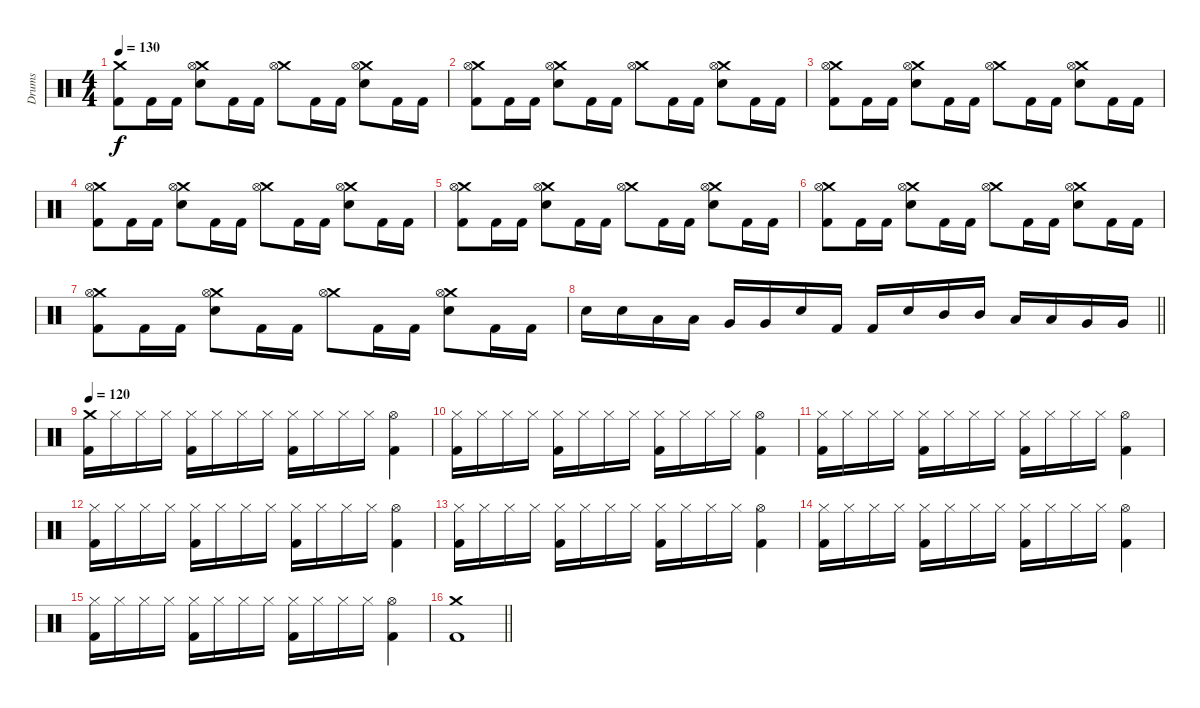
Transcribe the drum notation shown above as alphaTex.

\track ("Drums" "Drums") {instrument percussion}
\staff {score}
\articulation defaults
\ts (4 4)
\tempo 130
\clef neutral
\ks c
("Crash medium (hit)" "Kick (hit) 2").8{dy f} "Kick (hit) 2".16 "Kick (hit) 2".16 ("Crash medium (hit)" "Hi-Hat (open)" "Electric Snare (hit)").8 "Kick (hit) 2".16 "Kick (hit) 2".16 ("Crash medium (hit)" "Hi-Hat (open)").8 "Kick (hit) 2".16 "Kick (hit) 2".16 ("Crash medium (hit)" "Hi-Hat (open)" "Electric Snare (hit)").8 "Kick (hit) 2".16 "Kick (hit) 2".16 |
("Crash medium (hit)" "Hi-Hat (open)" "Kick (hit) 2").8 "Kick (hit) 2".16 "Kick (hit) 2".16 ("Crash medium (hit)" "Hi-Hat (open)" "Electric Snare (hit)").8 "Kick (hit) 2".16 "Kick (hit) 2".16 ("Crash medium (hit)" "Hi-Hat (open)").8 "Kick (hit) 2".16 "Kick (hit) 2".16 ("Crash medium (hit)" "Hi-Hat (open)" "Electric Snare (hit)").8 "Kick (hit) 2".16 "Kick (hit) 2".16 |
("Crash medium (hit)" "Hi-Hat (open)" "Kick (hit) 2").8 "Kick (hit) 2".16 "Kick (hit) 2".16 ("Crash medium (hit)" "Hi-Hat (open)" "Electric Snare (hit)").8 "Kick (hit) 2".16 "Kick (hit) 2".16 ("Crash medium (hit)" "Hi-Hat (open)").8 "Kick (hit) 2".16 "Kick (hit) 2".16 ("Crash medium (hit)" "Hi-Hat (open)" "Electric Snare (hit)").8 "Kick (hit) 2".16 "Kick (hit) 2".16 |
("Crash medium (hit)" "Hi-Hat (open)" "Kick (hit) 2").8 "Kick (hit) 2".16 "Kick (hit) 2".16 ("Crash medium (hit)" "Hi-Hat (open)" "Electric Snare (hit)").8 "Kick (hit) 2".16 "Kick (hit) 2".16 ("Crash medium (hit)" "Hi-Hat (open)").8 "Kick (hit) 2".16 "Kick (hit) 2".16 ("Crash medium (hit)" "Hi-Hat (open)" "Electric Snare (hit)").8 "Kick (hit) 2".16 "Kick (hit) 2".16 |
("Crash medium (hit)" "Hi-Hat (open)" "Kick (hit) 2").8 "Kick (hit) 2".16 "Kick (hit) 2".16 ("Crash medium (hit)" "Hi-Hat (open)" "Electric Snare (hit)").8 "Kick (hit) 2".16 "Kick (hit) 2".16 ("Crash medium (hit)" "Hi-Hat (open)").8 "Kick (hit) 2".16 "Kick (hit) 2".16 ("Crash medium (hit)" "Hi-Hat (open)" "Electric Snare (hit)").8 "Kick (hit) 2".16 "Kick (hit) 2".16 |
("Crash medium (hit)" "Hi-Hat (open)" "Kick (hit) 2").8 "Kick (hit) 2".16 "Kick (hit) 2".16 ("Crash medium (hit)" "Hi-Hat (open)" "Electric Snare (hit)").8 "Kick (hit) 2".16 "Kick (hit) 2".16 ("Crash medium (hit)" "Hi-Hat (open)").8 "Kick (hit) 2".16 "Kick (hit) 2".16 ("Crash medium (hit)" "Hi-Hat (open)" "Electric Snare (hit)").8 "Kick (hit) 2".16 "Kick (hit) 2".16 |
("Crash medium (hit)" "Hi-Hat (open)" "Kick (hit) 2").8 "Kick (hit) 2".16 "Kick (hit) 2".16 ("Crash medium (hit)" "Hi-Hat (open)" "Electric Snare (hit)").8 "Kick (hit) 2".16 "Kick (hit) 2".16 ("Crash medium (hit)" "Hi-Hat (open)").8 "Kick (hit) 2".16 "Kick (hit) 2".16 ("Crash medium (hit)" "Hi-Hat (open)" "Electric Snare (hit)").8 "Kick (hit) 2".16 "Kick (hit) 2".16 |
\barLineRight lightlight "Electric Snare (hit)".16 "Electric Snare (hit)".16 "Low Tom (hit)".16 "Low Tom (hit)".16 "Very Low Tom (hit)".16 "Very Low Tom (hit)".16 "Electric Snare (hit)".16 "Kick (hit) 2".16 "Kick (hit) 2".16 "Electric Snare (hit)".16 "Mid Tom (hit)".16 "Mid Tom (hit)".16 "Low Tom (hit)".16 "Low Tom (hit)".16 "Very Low Tom (hit)".16 "Very Low Tom (hit)".16
|
\section ("" "")
\tempo 120
("Crash medium (hit)" "Kick (hit) 2").16 "Hi-Hat (closed)".16 "Hi-Hat (closed)".16 "Hi-Hat (closed)".16 ("Hi-Hat (closed)" "Kick (hit) 2").16 "Hi-Hat (closed)".16 "Hi-Hat (closed)".16 "Hi-Hat (closed)".16 ("Hi-Hat (closed)" "Kick (hit) 2").16 "Hi-Hat (closed)".16 "Hi-Hat (closed)".16 "Hi-Hat (closed)".16 ("Hi-Hat (open)" "Kick (hit) 2").4 |
("Hi-Hat (closed)" "Kick (hit) 2").16 "Hi-Hat (closed)".16 "Hi-Hat (closed)".16 "Hi-Hat (closed)".16 ("Hi-Hat (closed)" "Kick (hit) 2").16 "Hi-Hat (closed)".16 "Hi-Hat (closed)".16 "Hi-Hat (closed)".16 ("Hi-Hat (closed)" "Kick (hit) 2").16 "Hi-Hat (closed)".16 "Hi-Hat (closed)".16 "Hi-Hat (closed)".16 ("Hi-Hat (open)" "Kick (hit) 2").4 |
("Hi-Hat (closed)" "Kick (hit) 2").16 "Hi-Hat (closed)".16 "Hi-Hat (closed)".16 "Hi-Hat (closed)".16 ("Hi-Hat (closed)" "Kick (hit) 2").16 "Hi-Hat (closed)".16 "Hi-Hat (closed)".16 "Hi-Hat (closed)".16 ("Hi-Hat (closed)" "Kick (hit) 2").16 "Hi-Hat (closed)".16 "Hi-Hat (closed)".16 "Hi-Hat (closed)".16 ("Hi-Hat (open)" "Kick (hit) 2").4 |
("Hi-Hat (closed)" "Kick (hit) 2").16 "Hi-Hat (closed)".16 "Hi-Hat (closed)".16 "Hi-Hat (closed)".16 ("Hi-Hat (closed)" "Kick (hit) 2").16 "Hi-Hat (closed)".16 "Hi-Hat (closed)".16 "Hi-Hat (closed)".16 ("Hi-Hat (closed)" "Kick (hit) 2").16 "Hi-Hat (closed)".16 "Hi-Hat (closed)".16 "Hi-Hat (closed)".16 ("Hi-Hat (open)" "Kick (hit) 2").4 |
("Hi-Hat (closed)" "Kick (hit) 2").16 "Hi-Hat (closed)".16 "Hi-Hat (closed)".16 "Hi-Hat (closed)".16 ("Hi-Hat (closed)" "Kick (hit) 2").16 "Hi-Hat (closed)".16 "Hi-Hat (closed)".16 "Hi-Hat (closed)".16 ("Hi-Hat (closed)" "Kick (hit) 2").16 "Hi-Hat (closed)".16 "Hi-Hat (closed)".16 "Hi-Hat (closed)".16 ("Hi-Hat (open)" "Kick (hit) 2").4 |
("Hi-Hat (closed)" "Kick (hit) 2").16 "Hi-Hat (closed)".16 "Hi-Hat (closed)".16 "Hi-Hat (closed)".16 ("Hi-Hat (closed)" "Kick (hit) 2").16 "Hi-Hat (closed)".16 "Hi-Hat (closed)".16 "Hi-Hat (closed)".16 ("Hi-Hat (closed)" "Kick (hit) 2").16 "Hi-Hat (closed)".16 "Hi-Hat (closed)".16 "Hi-Hat (closed)".16 ("Hi-Hat (open)" "Kick (hit) 2").4 |
("Hi-Hat (closed)" "Kick (hit) 2").16 "Hi-Hat (closed)".16 "Hi-Hat (closed)".16 "Hi-Hat (closed)".16 ("Hi-Hat (closed)" "Kick (hit) 2").16 "Hi-Hat (closed)".16 "Hi-Hat (closed)".16 "Hi-Hat (closed)".16 ("Hi-Hat (closed)" "Kick (hit) 2").16 "Hi-Hat (closed)".16 "Hi-Hat (closed)".16 "Hi-Hat (closed)".16 ("Hi-Hat (open)" "Kick (hit) 2").4 |
\barLineRight lightlight
("Crash medium (hit)" "Kick (hit) 2").1
